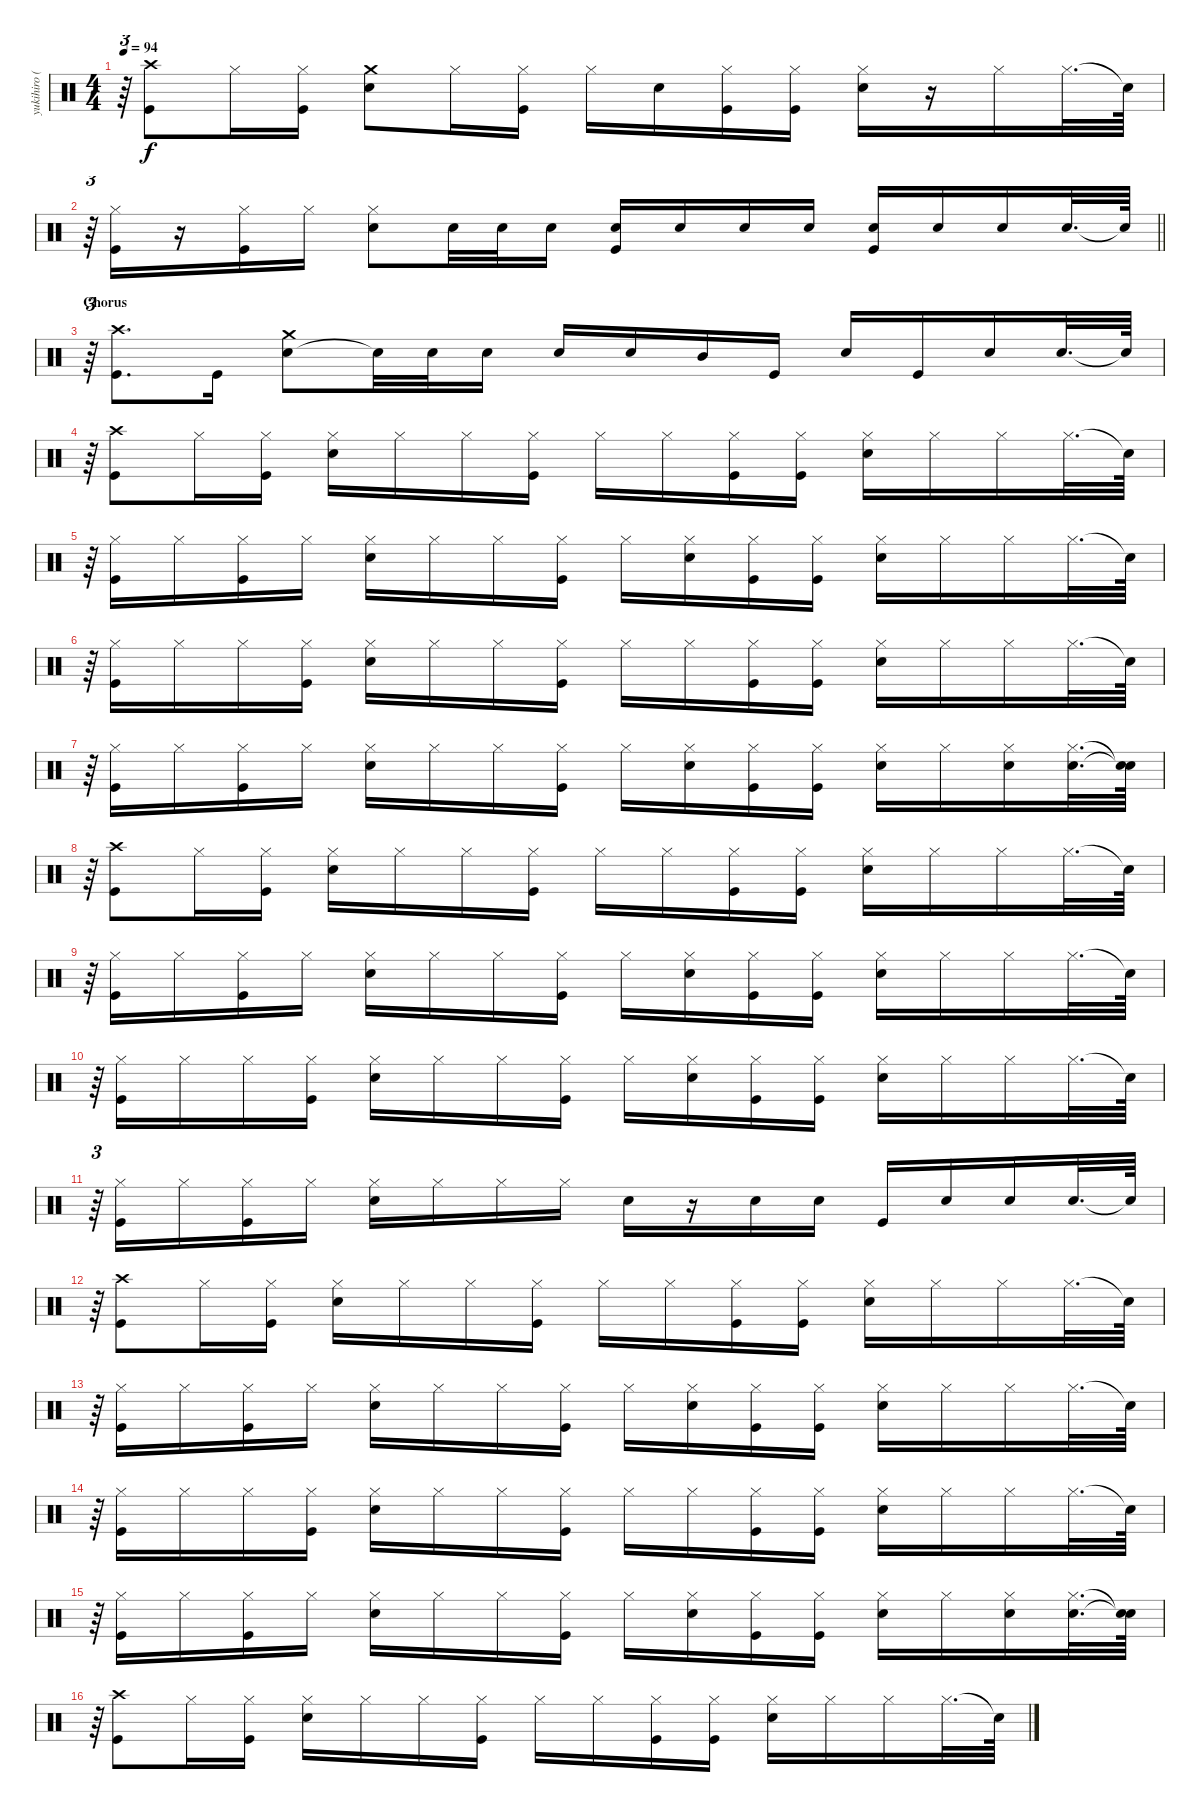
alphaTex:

\track ("yukihiro (Drums)" "yukihiro (") {instrument percussion}
\staff {score}
\articulation defaults
\ts (4 4)
\tempo 94
\clef neutral
\ks c
r.64{tu (3 2) dy f} ("Crash high (hit)" "Kick (hit)").8 "Hi-Hat (closed)".16 ("Kick (hit)" "Hi-Hat (closed)").16 ("Electric Snare (hit)" "Crash medium (hit)").8 "Hi-Hat (closed)".16 ("Kick (hit)" "Hi-Hat (closed)").16 "Hi-Hat (closed)".16 "Electric Snare (hit)".16 ("Kick (hit)" "Hi-Hat (closed)").16 ("Kick (hit)" "Hi-Hat (closed)").16 ("Electric Snare (hit)" "Hi-Hat (closed)").16 r.16 "Hi-Hat (closed)".16 "Hi-Hat (closed)".32{d} "Snare (hit)"{t}.64 |
\barLineRight lightlight
r.64{tu (3 2)} ("Kick (hit)" "Hi-Hat (closed)").16 r.16 ("Kick (hit)" "Hi-Hat (closed)").16 "Hi-Hat (closed)".16 ("Electric Snare (hit)" "Hi-Hat (closed)").8 "Electric Snare (hit)".32 "Electric Snare (hit)".32 "Electric Snare (hit)".16 ("Kick (hit)" "Electric Snare (hit)").16 "Electric Snare (hit)".16 "Electric Snare (hit)".16 "Electric Snare (hit)".16 ("Electric Snare (hit)" "Kick (hit)").16 "Electric Snare (hit)".16 "Electric Snare (hit)".16 "Electric Snare (hit)".32{d} "Snare (hit)"{t}.64 |
\section ("" "Chorus")
r.64{tu (3 2)} ("Kick (hit)" "Crash high (hit)").8{d} "Kick (hit)".16 ("Electric Snare (hit)" "Crash medium (hit)").8 "Snare (hit)"{t}.32 "Electric Snare (hit)".32 "Electric Snare (hit)".16 "Electric Snare (hit)".16 "Electric Snare (hit)".16 "Mid Tom (hit)".16 "Kick (hit)".16 "Electric Snare (hit)".16 "Kick (hit)".16 "Electric Snare (hit)".16 "Electric Snare (hit)".32{d} "Snare (hit)"{t}.64 |
r.64{tu (3 2)} ("Kick (hit)" "Crash high (hit)").8 "Hi-Hat (closed)".16 ("Kick (hit)" "Hi-Hat (closed)").16 ("Electric Snare (hit)" "Hi-Hat (closed)").16 "Hi-Hat (closed)".16 "Hi-Hat (closed)".16 ("Kick (hit)" "Hi-Hat (closed)").16 "Hi-Hat (closed)".16 "Hi-Hat (closed)".16 ("Kick (hit)" "Hi-Hat (closed)").16 ("Kick (hit)" "Hi-Hat (closed)").16 ("Electric Snare (hit)" "Hi-Hat (closed)").16 "Hi-Hat (closed)".16 "Hi-Hat (closed)".16 "Hi-Hat (closed)".32{d} "Snare (hit)"{t}.64 |
r.64{tu (3 2)} ("Kick (hit)" "Hi-Hat (closed)").16 "Hi-Hat (closed)".16 ("Kick (hit)" "Hi-Hat (closed)").16 "Hi-Hat (closed)".16 ("Electric Snare (hit)" "Hi-Hat (closed)").16 "Hi-Hat (closed)".16 "Hi-Hat (closed)".16 ("Kick (hit)" "Hi-Hat (closed)").16 "Hi-Hat (closed)".16 ("Electric Snare (hit)" "Hi-Hat (closed)").16 ("Kick (hit)" "Hi-Hat (closed)").16 ("Kick (hit)" "Hi-Hat (closed)").16 ("Electric Snare (hit)" "Hi-Hat (closed)").16 "Hi-Hat (closed)".16 "Hi-Hat (closed)".16 "Hi-Hat (closed)".32{d} "Snare (hit)"{t}.64 |
r.64{tu (3 2)} ("Kick (hit)" "Hi-Hat (closed)").16 "Hi-Hat (closed)".16 "Hi-Hat (closed)".16 ("Kick (hit)" "Hi-Hat (closed)").16 ("Electric Snare (hit)" "Hi-Hat (closed)").16 "Hi-Hat (closed)".16 "Hi-Hat (closed)".16 ("Kick (hit)" "Hi-Hat (closed)").16 "Hi-Hat (closed)".16 "Hi-Hat (closed)".16 ("Kick (hit)" "Hi-Hat (closed)").16 ("Kick (hit)" "Hi-Hat (closed)").16 ("Electric Snare (hit)" "Hi-Hat (closed)").16 "Hi-Hat (closed)".16 "Hi-Hat (closed)".16 "Hi-Hat (closed)".32{d} "Snare (hit)"{t}.64 |
r.64{tu (3 2)} ("Kick (hit)" "Hi-Hat (closed)").16 "Hi-Hat (closed)".16 ("Kick (hit)" "Hi-Hat (closed)").16 "Hi-Hat (closed)".16 ("Electric Snare (hit)" "Hi-Hat (closed)").16 "Hi-Hat (closed)".16 "Hi-Hat (closed)".16 ("Kick (hit)" "Hi-Hat (closed)").16 "Hi-Hat (closed)".16 ("Electric Snare (hit)" "Hi-Hat (closed)").16 ("Kick (hit)" "Hi-Hat (closed)").16 ("Kick (hit)" "Hi-Hat (closed)").16 ("Electric Snare (hit)" "Hi-Hat (closed)").16 "Hi-Hat (closed)".16 ("Electric Snare (hit)" "Hi-Hat (closed)").16 ("Electric Snare (hit)" "Hi-Hat (closed)").32{d} ("Snare (hit)"{t} "Snare (hit)"{t}).64 |
r.64{tu (3 2)} ("Crash high (hit)" "Kick (hit)").8 "Hi-Hat (closed)".16 ("Kick (hit)" "Hi-Hat (closed)").16 ("Electric Snare (hit)" "Hi-Hat (closed)").16 "Hi-Hat (closed)".16 "Hi-Hat (closed)".16 ("Kick (hit)" "Hi-Hat (closed)").16 "Hi-Hat (closed)".16 "Hi-Hat (closed)".16 ("Kick (hit)" "Hi-Hat (closed)").16 ("Kick (hit)" "Hi-Hat (closed)").16 ("Electric Snare (hit)" "Hi-Hat (closed)").16 "Hi-Hat (closed)".16 "Hi-Hat (closed)".16 "Hi-Hat (closed)".32{d} "Snare (hit)"{t}.64 |
r.64{tu (3 2)} ("Kick (hit)" "Hi-Hat (closed)").16 "Hi-Hat (closed)".16 ("Kick (hit)" "Hi-Hat (closed)").16 "Hi-Hat (closed)".16 ("Electric Snare (hit)" "Hi-Hat (closed)").16 "Hi-Hat (closed)".16 "Hi-Hat (closed)".16 ("Kick (hit)" "Hi-Hat (closed)").16 "Hi-Hat (closed)".16 ("Electric Snare (hit)" "Hi-Hat (closed)").16 ("Kick (hit)" "Hi-Hat (closed)").16 ("Kick (hit)" "Hi-Hat (closed)").16 ("Electric Snare (hit)" "Hi-Hat (closed)").16 "Hi-Hat (closed)".16 "Hi-Hat (closed)".16 "Hi-Hat (closed)".32{d} "Snare (hit)"{t}.64 |
r.64{tu (3 2)} ("Kick (hit)" "Hi-Hat (closed)").16 "Hi-Hat (closed)".16 "Hi-Hat (closed)".16 ("Kick (hit)" "Hi-Hat (closed)").16 ("Electric Snare (hit)" "Hi-Hat (closed)").16 "Hi-Hat (closed)".16 "Hi-Hat (closed)".16 ("Kick (hit)" "Hi-Hat (closed)").16 "Hi-Hat (closed)".16 ("Electric Snare (hit)" "Hi-Hat (closed)").16 ("Kick (hit)" "Hi-Hat (closed)").16 ("Kick (hit)" "Hi-Hat (closed)").16 ("Electric Snare (hit)" "Hi-Hat (closed)").16 "Hi-Hat (closed)".16 "Hi-Hat (closed)".16 "Hi-Hat (closed)".32{d} "Snare (hit)"{t}.64 |
r.64{tu (3 2)} ("Kick (hit)" "Hi-Hat (closed)").16 "Hi-Hat (closed)".16 ("Kick (hit)" "Hi-Hat (closed)").16 "Hi-Hat (closed)".16 ("Electric Snare (hit)" "Hi-Hat (closed)").16 "Hi-Hat (closed)".16 "Hi-Hat (closed)".16 "Hi-Hat (closed)".16 "Electric Snare (hit)".16 r.16 "Electric Snare (hit)".16 "Electric Snare (hit)".16 "Kick (hit)".16 "Electric Snare (hit)".16 "Electric Snare (hit)".16 "Electric Snare (hit)".32{d} "Snare (hit)"{t}.64 |
r.64{tu (3 2)} ("Kick (hit)" "Crash high (hit)").8 "Hi-Hat (closed)".16 ("Kick (hit)" "Hi-Hat (closed)").16 ("Electric Snare (hit)" "Hi-Hat (closed)").16 "Hi-Hat (closed)".16 "Hi-Hat (closed)".16 ("Kick (hit)" "Hi-Hat (closed)").16 "Hi-Hat (closed)".16 "Hi-Hat (closed)".16 ("Kick (hit)" "Hi-Hat (closed)").16 ("Kick (hit)" "Hi-Hat (closed)").16 ("Electric Snare (hit)" "Hi-Hat (closed)").16 "Hi-Hat (closed)".16 "Hi-Hat (closed)".16 "Hi-Hat (closed)".32{d} "Snare (hit)"{t}.64 |
r.64{tu (3 2)} ("Kick (hit)" "Hi-Hat (closed)").16 "Hi-Hat (closed)".16 ("Kick (hit)" "Hi-Hat (closed)").16 "Hi-Hat (closed)".16 ("Electric Snare (hit)" "Hi-Hat (closed)").16 "Hi-Hat (closed)".16 "Hi-Hat (closed)".16 ("Kick (hit)" "Hi-Hat (closed)").16 "Hi-Hat (closed)".16 ("Electric Snare (hit)" "Hi-Hat (closed)").16 ("Kick (hit)" "Hi-Hat (closed)").16 ("Kick (hit)" "Hi-Hat (closed)").16 ("Electric Snare (hit)" "Hi-Hat (closed)").16 "Hi-Hat (closed)".16 "Hi-Hat (closed)".16 "Hi-Hat (closed)".32{d} "Snare (hit)"{t}.64 |
r.64{tu (3 2)} ("Kick (hit)" "Hi-Hat (closed)").16 "Hi-Hat (closed)".16 "Hi-Hat (closed)".16 ("Kick (hit)" "Hi-Hat (closed)").16 ("Electric Snare (hit)" "Hi-Hat (closed)").16 "Hi-Hat (closed)".16 "Hi-Hat (closed)".16 ("Kick (hit)" "Hi-Hat (closed)").16 "Hi-Hat (closed)".16 "Hi-Hat (closed)".16 ("Kick (hit)" "Hi-Hat (closed)").16 ("Kick (hit)" "Hi-Hat (closed)").16 ("Electric Snare (hit)" "Hi-Hat (closed)").16 "Hi-Hat (closed)".16 "Hi-Hat (closed)".16 "Hi-Hat (closed)".32{d} "Snare (hit)"{t}.64 |
r.64{tu (3 2)} ("Kick (hit)" "Hi-Hat (closed)").16 "Hi-Hat (closed)".16 ("Kick (hit)" "Hi-Hat (closed)").16 "Hi-Hat (closed)".16 ("Electric Snare (hit)" "Hi-Hat (closed)").16 "Hi-Hat (closed)".16 "Hi-Hat (closed)".16 ("Kick (hit)" "Hi-Hat (closed)").16 "Hi-Hat (closed)".16 ("Electric Snare (hit)" "Hi-Hat (closed)").16 ("Kick (hit)" "Hi-Hat (closed)").16 ("Kick (hit)" "Hi-Hat (closed)").16 ("Electric Snare (hit)" "Hi-Hat (closed)").16 "Hi-Hat (closed)".16 ("Electric Snare (hit)" "Hi-Hat (closed)").16 ("Electric Snare (hit)" "Hi-Hat (closed)").32{d} ("Snare (hit)"{t} "Snare (hit)"{t}).64 |
r.64{tu (3 2)} ("Crash high (hit)" "Kick (hit)").8 "Hi-Hat (closed)".16 ("Kick (hit)" "Hi-Hat (closed)").16 ("Electric Snare (hit)" "Hi-Hat (closed)").16 "Hi-Hat (closed)".16 "Hi-Hat (closed)".16 ("Kick (hit)" "Hi-Hat (closed)").16 "Hi-Hat (closed)".16 "Hi-Hat (closed)".16 ("Kick (hit)" "Hi-Hat (closed)").16 ("Kick (hit)" "Hi-Hat (closed)").16 ("Electric Snare (hit)" "Hi-Hat (closed)").16 "Hi-Hat (closed)".16 "Hi-Hat (closed)".16 "Hi-Hat (closed)".32{d} "Snare (hit)"{t}.64
